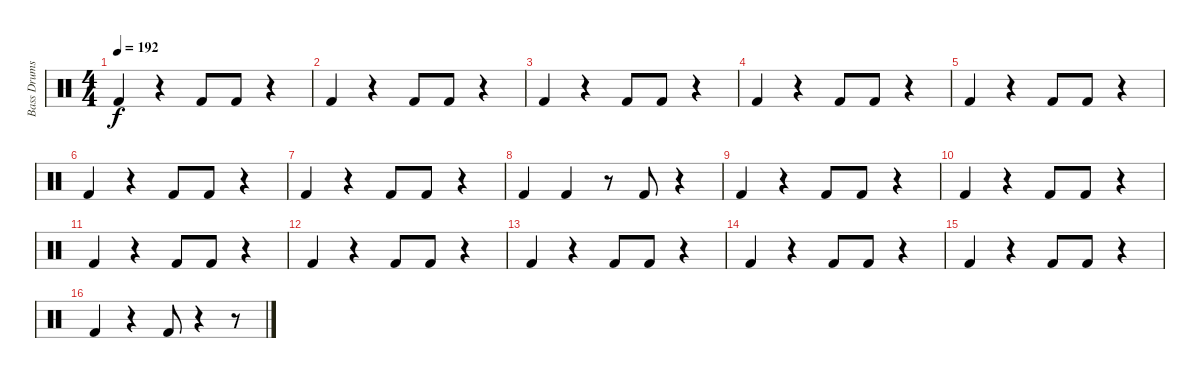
\track ("Bass Drums" "Bass Drums") {instrument percussion}
\staff {score}
\articulation defaults
\ts (4 4)
\tempo 192
\clef neutral
\ks c "Kick (hit) 2".4{dy f}
r.4 "Kick (hit) 2".8 "Kick (hit) 2".8 r.4 |
"Kick (hit) 2".4 r.4 "Kick (hit) 2".8 "Kick (hit) 2".8 r.4 |
"Kick (hit) 2".4 r.4 "Kick (hit) 2".8 "Kick (hit) 2".8 r.4 |
"Kick (hit) 2".4 r.4 "Kick (hit) 2".8 "Kick (hit) 2".8 r.4 |
"Kick (hit) 2".4 r.4 "Kick (hit) 2".8 "Kick (hit) 2".8 r.4 |
"Kick (hit) 2".4 r.4 "Kick (hit) 2".8 "Kick (hit) 2".8 r.4 |
"Kick (hit) 2".4 r.4 "Kick (hit) 2".8 "Kick (hit) 2".8 r.4 |
"Kick (hit) 2".4 "Kick (hit) 2".4 r.8 "Kick (hit) 2".8 r.4 |
"Kick (hit) 2".4 r.4 "Kick (hit) 2".8 "Kick (hit) 2".8 r.4 |
"Kick (hit) 2".4 r.4 "Kick (hit) 2".8 "Kick (hit) 2".8 r.4 |
"Kick (hit) 2".4 r.4 "Kick (hit) 2".8 "Kick (hit) 2".8 r.4 |
"Kick (hit) 2".4 r.4 "Kick (hit) 2".8 "Kick (hit) 2".8 r.4 |
"Kick (hit) 2".4 r.4 "Kick (hit) 2".8 "Kick (hit) 2".8 r.4 |
"Kick (hit) 2".4 r.4 "Kick (hit) 2".8 "Kick (hit) 2".8 r.4 |
"Kick (hit) 2".4 r.4 "Kick (hit) 2".8 "Kick (hit) 2".8 r.4 |
"Kick (hit) 2".4 r.4 "Kick (hit) 2".8 r.4 r.8
